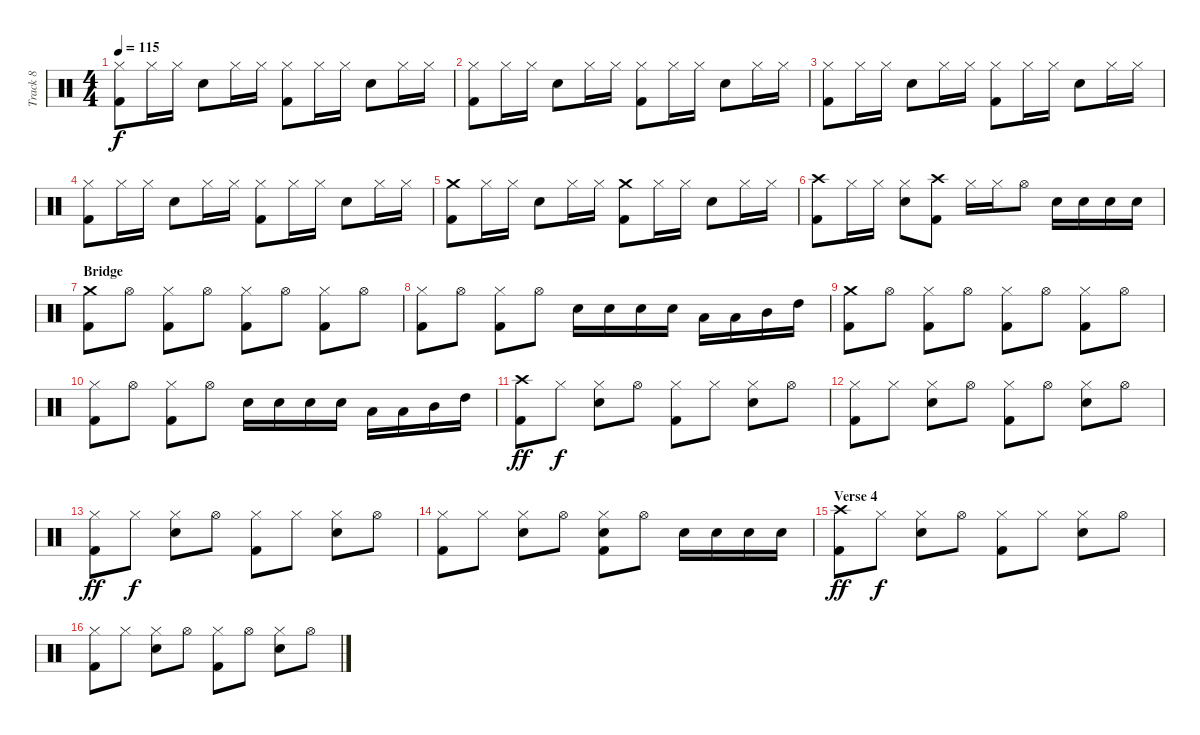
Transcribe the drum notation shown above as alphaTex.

\track ("Track 8" "Track 8") {instrument percussion}
\staff {score}
\articulation defaults
\ts (4 4)
\tempo 115
\clef neutral
\ks c
("Hi-Hat (closed)" "Kick (hit) 2").8{dy f} "Hi-Hat (closed)".16 "Hi-Hat (closed)".16 "Electric Snare (hit)".8 "Hi-Hat (closed)".16 "Hi-Hat (closed)".16 ("Hi-Hat (closed)" "Kick (hit) 2").8 "Hi-Hat (closed)".16 "Hi-Hat (closed)".16 "Electric Snare (hit)".8 "Hi-Hat (closed)".16 "Hi-Hat (closed)".16 |
("Hi-Hat (closed)" "Kick (hit) 2").8 "Hi-Hat (closed)".16 "Hi-Hat (closed)".16 "Electric Snare (hit)".8 "Hi-Hat (closed)".16 "Hi-Hat (closed)".16 ("Hi-Hat (closed)" "Kick (hit) 2").8 "Hi-Hat (closed)".16 "Hi-Hat (closed)".16 "Electric Snare (hit)".8 "Hi-Hat (closed)".16 "Hi-Hat (closed)".16 |
("Hi-Hat (closed)" "Kick (hit) 2").8 "Hi-Hat (closed)".16 "Hi-Hat (closed)".16 "Electric Snare (hit)".8 "Hi-Hat (closed)".16 "Hi-Hat (closed)".16 ("Hi-Hat (closed)" "Kick (hit) 2").8 "Hi-Hat (closed)".16 "Hi-Hat (closed)".16 "Electric Snare (hit)".8 "Hi-Hat (closed)".16 "Hi-Hat (closed)".16 |
("Hi-Hat (closed)" "Kick (hit) 2").8 "Hi-Hat (closed)".16 "Hi-Hat (closed)".16 "Electric Snare (hit)".8 "Hi-Hat (closed)".16 "Hi-Hat (closed)".16 ("Hi-Hat (closed)" "Kick (hit) 2").8 "Hi-Hat (closed)".16 "Hi-Hat (closed)".16 "Electric Snare (hit)".8 "Hi-Hat (closed)".16 "Hi-Hat (closed)".16 |
("Crash medium (hit)" "Kick (hit) 2").8 "Hi-Hat (closed)".16 "Hi-Hat (closed)".16 "Electric Snare (hit)".8 "Hi-Hat (closed)".16 "Hi-Hat (closed)".16 ("Crash medium (hit)" "Kick (hit) 2").8 "Hi-Hat (closed)".16 "Hi-Hat (closed)".16 "Electric Snare (hit)".8 "Hi-Hat (closed)".16 "Hi-Hat (closed)".16 |
("Crash high (hit)" "Kick (hit) 2").8 "Hi-Hat (closed)".16 "Hi-Hat (closed)".16 ("Hi-Hat (closed)" "Electric Snare (hit)").8 ("Crash high (hit)" "Kick (hit) 2").8 "Hi-Hat (closed)".16 "Hi-Hat (closed)".16 "Hi-Hat (open)".8 "Electric Snare (hit)".16 "Electric Snare (hit)".16 "Electric Snare (hit)".16 "Electric Snare (hit)".16 |
\section ("" "Bridge")
("Crash medium (hit)" "Kick (hit) 2").8 "Hi-Hat (open)".8 ("Hi-Hat (closed)" "Kick (hit) 2").8 "Hi-Hat (open)".8 ("Hi-Hat (closed)" "Kick (hit) 2").8 "Hi-Hat (open)".8 ("Hi-Hat (closed)" "Kick (hit) 2").8 "Hi-Hat (open)".8 |
("Hi-Hat (closed)" "Kick (hit) 2").8 "Hi-Hat (open)".8 ("Hi-Hat (closed)" "Kick (hit) 2").8 "Hi-Hat (open)".8 "Electric Snare (hit)".16 "Electric Snare (hit)".16 "Electric Snare (hit)".16 "Electric Snare (hit)".16 "Low Tom (hit)".16 "Low Tom (hit)".16 "Mid Tom (hit)".16 "High Tom (hit)".16 |
("Crash medium (hit)" "Kick (hit) 2").8 "Hi-Hat (open)".8 ("Hi-Hat (closed)" "Kick (hit) 2").8 "Hi-Hat (open)".8 ("Hi-Hat (closed)" "Kick (hit) 2").8 "Hi-Hat (open)".8 ("Hi-Hat (closed)" "Kick (hit) 2").8 "Hi-Hat (open)".8 |
("Hi-Hat (closed)" "Kick (hit) 2").8 "Hi-Hat (open)".8 ("Hi-Hat (closed)" "Kick (hit) 2").8 "Hi-Hat (open)".8 "Electric Snare (hit)".16 "Electric Snare (hit)".16 "Electric Snare (hit)".16 "Electric Snare (hit)".16 "Low Tom (hit)".16 "Low Tom (hit)".16 "Mid Tom (hit)".16 "High Tom (hit)".16 |
("Crash high (hit)" "Kick (hit) 2").8{dy ff} "Hi-Hat (closed)".8{dy f} ("Hi-Hat (closed)" "Electric Snare (hit)").8 "Hi-Hat (open)".8 ("Hi-Hat (closed)" "Kick (hit) 2").8 "Hi-Hat (closed)".8 ("Hi-Hat (closed)" "Electric Snare (hit)").8 "Hi-Hat (open)".8 |
("Hi-Hat (closed)" "Kick (hit) 2").8 "Hi-Hat (closed)".8 ("Hi-Hat (closed)" "Electric Snare (hit)").8 "Hi-Hat (open)".8 ("Hi-Hat (closed)" "Kick (hit) 2").8 "Hi-Hat (open)".8 ("Hi-Hat (closed)" "Electric Snare (hit)").8 "Hi-Hat (open)".8 |
("Hi-Hat (closed)" "Kick (hit) 2").8{dy ff} "Hi-Hat (closed)".8{dy f} ("Hi-Hat (closed)" "Electric Snare (hit)").8 "Hi-Hat (open)".8 ("Hi-Hat (closed)" "Kick (hit) 2").8 "Hi-Hat (closed)".8 ("Hi-Hat (closed)" "Electric Snare (hit)").8 "Hi-Hat (open)".8 |
("Hi-Hat (closed)" "Kick (hit) 2").8 "Hi-Hat (closed)".8 ("Hi-Hat (closed)" "Electric Snare (hit)").8 "Hi-Hat (open)".8 ("Hi-Hat (closed)" "Kick (hit) 2" "Electric Snare (hit)").8 "Hi-Hat (open)".8 "Electric Snare (hit)".16 "Electric Snare (hit)".16 "Electric Snare (hit)".16 "Electric Snare (hit)".16 |
\section ("" "Verse 4")
("Crash high (hit)" "Kick (hit) 2").8{dy ff} "Hi-Hat (closed)".8{dy f} ("Hi-Hat (closed)" "Electric Snare (hit)").8 "Hi-Hat (open)".8 ("Hi-Hat (closed)" "Kick (hit) 2").8 "Hi-Hat (closed)".8 ("Hi-Hat (closed)" "Electric Snare (hit)").8 "Hi-Hat (open)".8 |
("Hi-Hat (closed)" "Kick (hit) 2").8 "Hi-Hat (closed)".8 ("Hi-Hat (closed)" "Electric Snare (hit)").8 "Hi-Hat (open)".8 ("Hi-Hat (closed)" "Kick (hit) 2").8 "Hi-Hat (open)".8 ("Hi-Hat (closed)" "Electric Snare (hit)").8 "Hi-Hat (open)".8
